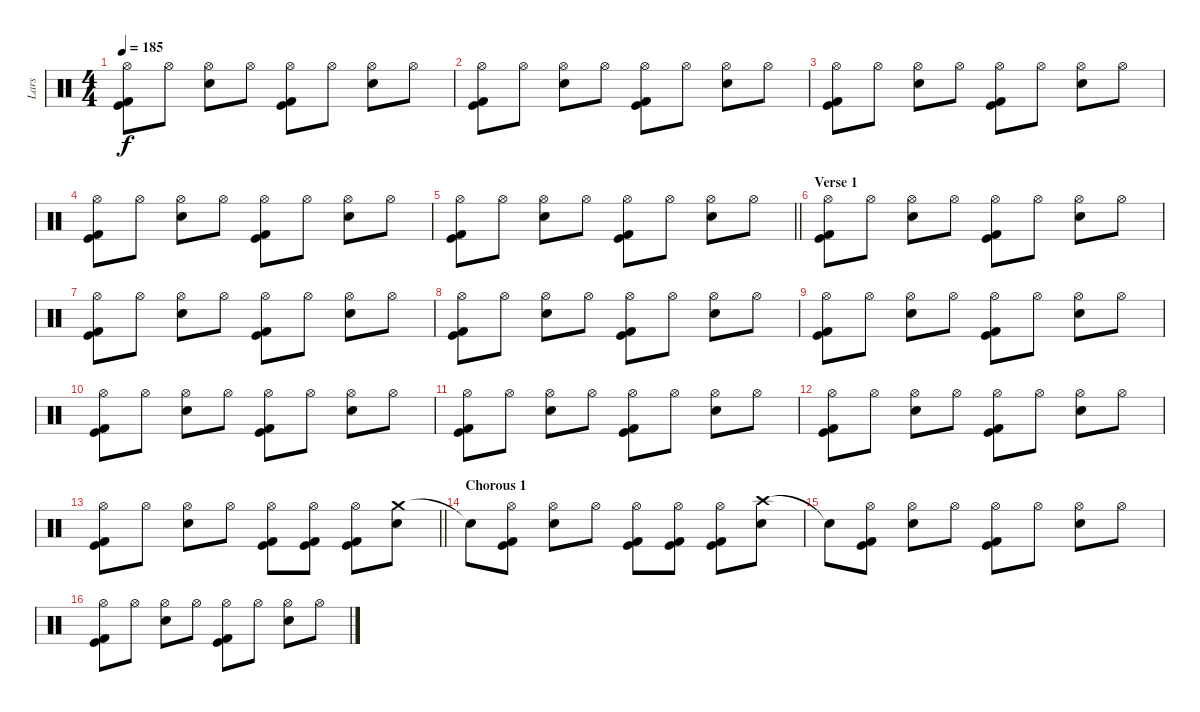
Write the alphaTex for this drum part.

\track ("Lars" "Lars") {instrument percussion}
\staff {score}
\articulation defaults
\ts (4 4)
\tempo 185
\clef neutral
\ks c
("Hi-Hat (open)" "Kick (hit)" "Kick (hit) 2").8{dy f} "Hi-Hat (open)".8 ("Hi-Hat (open)" "Electric Snare (hit)").8 "Hi-Hat (open)".8 ("Hi-Hat (open)" "Kick (hit)" "Kick (hit) 2").8 "Hi-Hat (open)".8 ("Hi-Hat (open)" "Electric Snare (hit)").8 "Hi-Hat (open)".8 |
("Hi-Hat (open)" "Kick (hit)" "Kick (hit) 2").8 "Hi-Hat (open)".8 ("Hi-Hat (open)" "Electric Snare (hit)").8 "Hi-Hat (open)".8 ("Hi-Hat (open)" "Kick (hit)" "Kick (hit) 2").8 "Hi-Hat (open)".8 ("Hi-Hat (open)" "Electric Snare (hit)").8 "Hi-Hat (open)".8 |
("Hi-Hat (open)" "Kick (hit)" "Kick (hit) 2").8 "Hi-Hat (open)".8 ("Hi-Hat (open)" "Electric Snare (hit)").8 "Hi-Hat (open)".8 ("Hi-Hat (open)" "Kick (hit)" "Kick (hit) 2").8 "Hi-Hat (open)".8 ("Hi-Hat (open)" "Electric Snare (hit)").8 "Hi-Hat (open)".8 |
("Hi-Hat (open)" "Kick (hit)" "Kick (hit) 2").8 "Hi-Hat (open)".8 ("Hi-Hat (open)" "Electric Snare (hit)").8 "Hi-Hat (open)".8 ("Hi-Hat (open)" "Kick (hit)" "Kick (hit) 2").8 "Hi-Hat (open)".8 ("Hi-Hat (open)" "Electric Snare (hit)").8 "Hi-Hat (open)".8 |
\barLineRight lightlight
("Hi-Hat (open)" "Kick (hit)" "Kick (hit) 2").8 "Hi-Hat (open)".8 ("Hi-Hat (open)" "Electric Snare (hit)").8 "Hi-Hat (open)".8 ("Hi-Hat (open)" "Kick (hit)" "Kick (hit) 2").8 "Hi-Hat (open)".8 ("Hi-Hat (open)" "Electric Snare (hit)").8 "Hi-Hat (open)".8 |
\section ("" "Verse 1")
("Hi-Hat (open)" "Kick (hit)" "Kick (hit) 2").8 "Hi-Hat (open)".8 ("Hi-Hat (open)" "Electric Snare (hit)").8 "Hi-Hat (open)".8 ("Hi-Hat (open)" "Kick (hit)" "Kick (hit) 2").8 "Hi-Hat (open)".8 ("Hi-Hat (open)" "Electric Snare (hit)").8 "Hi-Hat (open)".8 |
("Hi-Hat (open)" "Kick (hit)" "Kick (hit) 2").8 "Hi-Hat (open)".8 ("Hi-Hat (open)" "Electric Snare (hit)").8 "Hi-Hat (open)".8 ("Hi-Hat (open)" "Kick (hit)" "Kick (hit) 2").8 "Hi-Hat (open)".8 ("Hi-Hat (open)" "Electric Snare (hit)").8 "Hi-Hat (open)".8 |
("Hi-Hat (open)" "Kick (hit)" "Kick (hit) 2").8 "Hi-Hat (open)".8 ("Hi-Hat (open)" "Electric Snare (hit)").8 "Hi-Hat (open)".8 ("Hi-Hat (open)" "Kick (hit)" "Kick (hit) 2").8 "Hi-Hat (open)".8 ("Hi-Hat (open)" "Electric Snare (hit)").8 "Hi-Hat (open)".8 |
("Hi-Hat (open)" "Kick (hit)" "Kick (hit) 2").8 "Hi-Hat (open)".8 ("Hi-Hat (open)" "Electric Snare (hit)").8 "Hi-Hat (open)".8 ("Hi-Hat (open)" "Kick (hit)" "Kick (hit) 2").8 "Hi-Hat (open)".8 ("Hi-Hat (open)" "Electric Snare (hit)").8 "Hi-Hat (open)".8 |
("Hi-Hat (open)" "Kick (hit)" "Kick (hit) 2").8 "Hi-Hat (open)".8 ("Hi-Hat (open)" "Electric Snare (hit)").8 "Hi-Hat (open)".8 ("Hi-Hat (open)" "Kick (hit)" "Kick (hit) 2").8 "Hi-Hat (open)".8 ("Hi-Hat (open)" "Electric Snare (hit)").8 "Hi-Hat (open)".8 |
("Hi-Hat (open)" "Kick (hit)" "Kick (hit) 2").8 "Hi-Hat (open)".8 ("Hi-Hat (open)" "Electric Snare (hit)").8 "Hi-Hat (open)".8 ("Hi-Hat (open)" "Kick (hit)" "Kick (hit) 2").8 "Hi-Hat (open)".8 ("Hi-Hat (open)" "Electric Snare (hit)").8 "Hi-Hat (open)".8 |
("Hi-Hat (open)" "Kick (hit)" "Kick (hit) 2").8 "Hi-Hat (open)".8 ("Hi-Hat (open)" "Electric Snare (hit)").8 "Hi-Hat (open)".8 ("Hi-Hat (open)" "Kick (hit)" "Kick (hit) 2").8 "Hi-Hat (open)".8 ("Hi-Hat (open)" "Electric Snare (hit)").8 "Hi-Hat (open)".8 |
\barLineRight lightlight
("Hi-Hat (open)" "Kick (hit)" "Kick (hit) 2").8 "Hi-Hat (open)".8 ("Hi-Hat (open)" "Electric Snare (hit)").8 "Hi-Hat (open)".8 ("Hi-Hat (open)" "Kick (hit)" "Kick (hit) 2").8 ("Hi-Hat (open)" "Kick (hit)" "Kick (hit) 2").8 ("Hi-Hat (open)" "Kick (hit)" "Kick (hit) 2").8 ("Crash medium (hit)" "Electric Snare (hit)").8 |
\section ("" "Chorous 1")
"Snare (hit)"{t}.8 ("Hi-Hat (open)" "Kick (hit)" "Kick (hit) 2").8 ("Hi-Hat (open)" "Electric Snare (hit)").8 "Hi-Hat (open)".8 ("Hi-Hat (open)" "Kick (hit)" "Kick (hit) 2").8 ("Hi-Hat (open)" "Kick (hit)" "Kick (hit) 2").8 ("Hi-Hat (open)" "Kick (hit)" "Kick (hit) 2").8 ("Crash high (hit)" "Electric Snare (hit)").8 |
"Snare (hit)"{t}.8 ("Hi-Hat (open)" "Kick (hit)" "Kick (hit) 2").8 ("Hi-Hat (open)" "Electric Snare (hit)").8 "Hi-Hat (open)".8 ("Hi-Hat (open)" "Kick (hit)" "Kick (hit) 2").8 "Hi-Hat (open)".8 ("Hi-Hat (open)" "Electric Snare (hit)").8 "Hi-Hat (open)".8 |
("Hi-Hat (open)" "Kick (hit)" "Kick (hit) 2").8 "Hi-Hat (open)".8 ("Hi-Hat (open)" "Electric Snare (hit)").8 "Hi-Hat (open)".8 ("Hi-Hat (open)" "Kick (hit)" "Kick (hit) 2").8 "Hi-Hat (open)".8 ("Hi-Hat (open)" "Electric Snare (hit)").8 "Hi-Hat (open)".8
